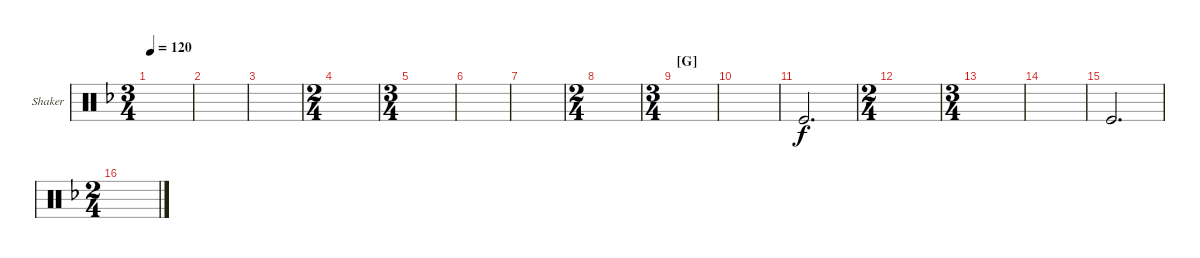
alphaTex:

\defaultSystemsLayout 4
\bracketExtendMode groupsimilarinstruments
\firstSystemTrackNameOrientation horizontal
\otherSystemsTrackNameOrientation horizontal
\track ("Shaker" "Shaker") {instrument percussion}
\staff {score}
\articulation defaults
\ts (3 4)
\tempo 120
\clef neutral
\ks f
|
|
|
\ts (2 4)
|
\ts (3 4)
|
|
|
\ts (2 4)
|
\ts (3 4)
\section ("G" "")
|
|
"Kick (hit)".2{d} |
\ts (2 4)
|
\ts (3 4)
|
|
"Kick (hit)".2{d} |
\ts (2 4)
